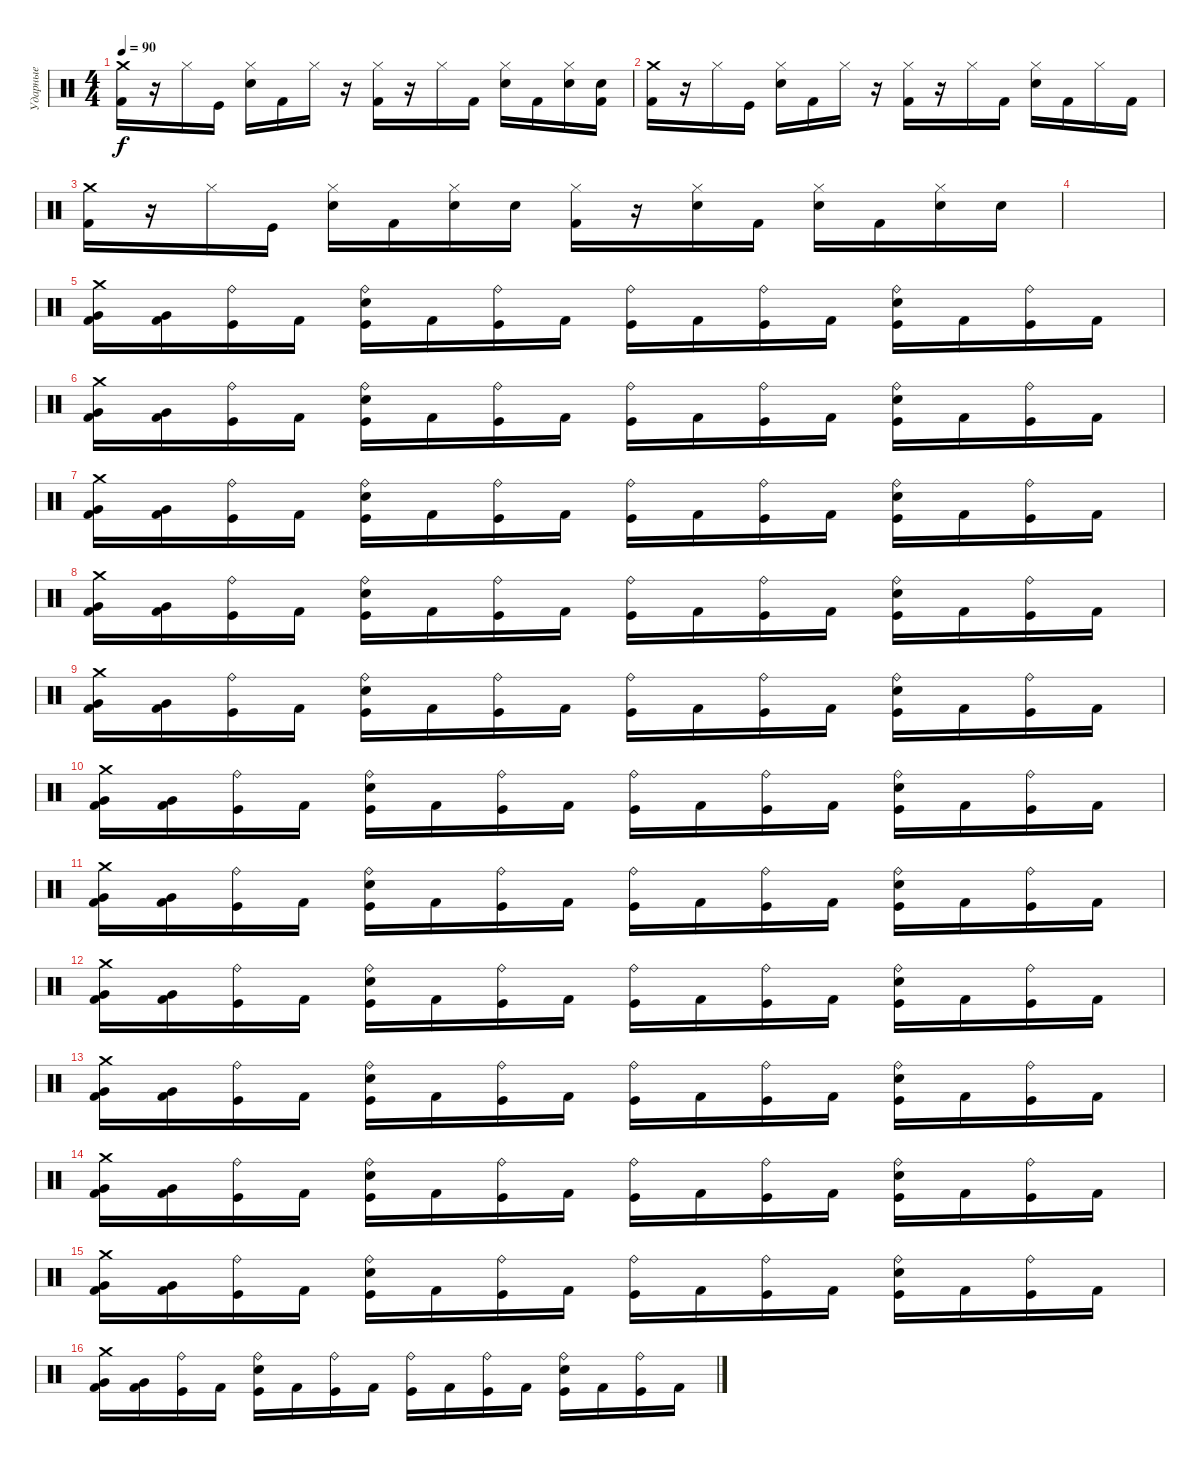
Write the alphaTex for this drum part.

\track ("Ударные" "Ударные") {instrument percussion}
\staff {score}
\articulation defaults
\ts (4 4)
\tempo 90
\clef neutral
\ks c
("Crash medium (hit)" "Kick (hit) 2").16{dy f} r.16 "Hi-Hat (closed)".16 "Kick (hit)".16 ("Hi-Hat (closed)" "Electric Snare (hit)").16 "Kick (hit) 2".16 "Hi-Hat (closed)".16 r.16 ("Hi-Hat (closed)" "Kick (hit) 2").16 r.16 "Hi-Hat (closed)".16 "Kick (hit) 2".16 ("Hi-Hat (closed)" "Electric Snare (hit)").16 "Kick (hit) 2".16 ("Hi-Hat (closed)" "Electric Snare (hit)").16 ("Kick (hit) 2" "Electric Snare (hit)").16 |
("Crash medium (hit)" "Kick (hit) 2").16 r.16 "Hi-Hat (closed)".16 "Kick (hit)".16 ("Hi-Hat (closed)" "Electric Snare (hit)").16 "Kick (hit) 2".16 "Hi-Hat (closed)".16 r.16 ("Hi-Hat (closed)" "Kick (hit) 2").16 r.16 "Hi-Hat (closed)".16 "Kick (hit) 2".16 ("Hi-Hat (closed)" "Electric Snare (hit)").16 "Kick (hit) 2".16 "Hi-Hat (closed)".16 "Kick (hit) 2".16 |
("Crash medium (hit)" "Kick (hit) 2").16 r.16 "Hi-Hat (closed)".16 "Kick (hit)".16 ("Hi-Hat (closed)" "Electric Snare (hit)").16 "Kick (hit) 2".16 ("Hi-Hat (closed)" "Electric Snare (hit)").16 "Electric Snare (hit)".16 ("Hi-Hat (closed)" "Kick (hit) 2").16 r.16 ("Hi-Hat (closed)" "Electric Snare (hit)").16 "Kick (hit) 2".16 ("Hi-Hat (closed)" "Electric Snare (hit)").16 "Kick (hit) 2".16 ("Hi-Hat (closed)" "Electric Snare (hit)").16 "Electric Snare (hit)".16 |
|
("Very Low Tom (hit)" "Kick (hit) 2" "Crash medium (hit)").16 ("Very Low Tom (hit)" "Kick (hit) 2").16 ("Kick (hit)" "Ride (bell)").16 "Kick (hit) 2".16 ("Kick (hit)" "Electric Snare (hit)" "Ride (bell)").16 "Kick (hit) 2".16 ("Kick (hit)" "Ride (bell)").16 "Kick (hit) 2".16 ("Kick (hit)" "Ride (bell)").16 "Kick (hit) 2".16 ("Kick (hit)" "Ride (bell)").16 "Kick (hit) 2".16 ("Kick (hit)" "Electric Snare (hit)" "Ride (bell)").16 "Kick (hit) 2".16 ("Kick (hit)" "Ride (bell)").16 "Kick (hit) 2".16 |
("Very Low Tom (hit)" "Kick (hit) 2" "Crash medium (hit)").16 ("Very Low Tom (hit)" "Kick (hit) 2").16 ("Kick (hit)" "Ride (bell)").16 "Kick (hit) 2".16 ("Kick (hit)" "Electric Snare (hit)" "Ride (bell)").16 "Kick (hit) 2".16 ("Kick (hit)" "Ride (bell)").16 "Kick (hit) 2".16 ("Kick (hit)" "Ride (bell)").16 "Kick (hit) 2".16 ("Kick (hit)" "Ride (bell)").16 "Kick (hit) 2".16 ("Kick (hit)" "Electric Snare (hit)" "Ride (bell)").16 "Kick (hit) 2".16 ("Kick (hit)" "Ride (bell)").16 "Kick (hit) 2".16 |
("Very Low Tom (hit)" "Kick (hit) 2" "Crash medium (hit)").16 ("Very Low Tom (hit)" "Kick (hit) 2").16 ("Kick (hit)" "Ride (bell)").16 "Kick (hit) 2".16 ("Kick (hit)" "Electric Snare (hit)" "Ride (bell)").16 "Kick (hit) 2".16 ("Kick (hit)" "Ride (bell)").16 "Kick (hit) 2".16 ("Kick (hit)" "Ride (bell)").16 "Kick (hit) 2".16 ("Kick (hit)" "Ride (bell)").16 "Kick (hit) 2".16 ("Kick (hit)" "Electric Snare (hit)" "Ride (bell)").16 "Kick (hit) 2".16 ("Kick (hit)" "Ride (bell)").16 "Kick (hit) 2".16 |
("Very Low Tom (hit)" "Kick (hit) 2" "Crash medium (hit)").16 ("Very Low Tom (hit)" "Kick (hit) 2").16 ("Kick (hit)" "Ride (bell)").16 "Kick (hit) 2".16 ("Kick (hit)" "Electric Snare (hit)" "Ride (bell)").16 "Kick (hit) 2".16 ("Kick (hit)" "Ride (bell)").16 "Kick (hit) 2".16 ("Kick (hit)" "Ride (bell)").16 "Kick (hit) 2".16 ("Kick (hit)" "Ride (bell)").16 "Kick (hit) 2".16 ("Kick (hit)" "Electric Snare (hit)" "Ride (bell)").16 "Kick (hit) 2".16 ("Kick (hit)" "Ride (bell)").16 "Kick (hit) 2".16 |
("Very Low Tom (hit)" "Kick (hit) 2" "Crash medium (hit)").16 ("Very Low Tom (hit)" "Kick (hit) 2").16 ("Kick (hit)" "Ride (bell)").16 "Kick (hit) 2".16 ("Kick (hit)" "Electric Snare (hit)" "Ride (bell)").16 "Kick (hit) 2".16 ("Kick (hit)" "Ride (bell)").16 "Kick (hit) 2".16 ("Kick (hit)" "Ride (bell)").16 "Kick (hit) 2".16 ("Kick (hit)" "Ride (bell)").16 "Kick (hit) 2".16 ("Kick (hit)" "Electric Snare (hit)" "Ride (bell)").16 "Kick (hit) 2".16 ("Kick (hit)" "Ride (bell)").16 "Kick (hit) 2".16 |
("Very Low Tom (hit)" "Kick (hit) 2" "Crash medium (hit)").16 ("Very Low Tom (hit)" "Kick (hit) 2").16 ("Kick (hit)" "Ride (bell)").16 "Kick (hit) 2".16 ("Kick (hit)" "Electric Snare (hit)" "Ride (bell)").16 "Kick (hit) 2".16 ("Kick (hit)" "Ride (bell)").16 "Kick (hit) 2".16 ("Kick (hit)" "Ride (bell)").16 "Kick (hit) 2".16 ("Kick (hit)" "Ride (bell)").16 "Kick (hit) 2".16 ("Kick (hit)" "Electric Snare (hit)" "Ride (bell)").16 "Kick (hit) 2".16 ("Kick (hit)" "Ride (bell)").16 "Kick (hit) 2".16 |
("Very Low Tom (hit)" "Kick (hit) 2" "Crash medium (hit)").16 ("Very Low Tom (hit)" "Kick (hit) 2").16 ("Kick (hit)" "Ride (bell)").16 "Kick (hit) 2".16 ("Kick (hit)" "Electric Snare (hit)" "Ride (bell)").16 "Kick (hit) 2".16 ("Kick (hit)" "Ride (bell)").16 "Kick (hit) 2".16 ("Kick (hit)" "Ride (bell)").16 "Kick (hit) 2".16 ("Kick (hit)" "Ride (bell)").16 "Kick (hit) 2".16 ("Kick (hit)" "Electric Snare (hit)" "Ride (bell)").16 "Kick (hit) 2".16 ("Kick (hit)" "Ride (bell)").16 "Kick (hit) 2".16 |
("Very Low Tom (hit)" "Kick (hit) 2" "Crash medium (hit)").16 ("Very Low Tom (hit)" "Kick (hit) 2").16 ("Kick (hit)" "Ride (bell)").16 "Kick (hit) 2".16 ("Kick (hit)" "Electric Snare (hit)" "Ride (bell)").16 "Kick (hit) 2".16 ("Kick (hit)" "Ride (bell)").16 "Kick (hit) 2".16 ("Kick (hit)" "Ride (bell)").16 "Kick (hit) 2".16 ("Kick (hit)" "Ride (bell)").16 "Kick (hit) 2".16 ("Kick (hit)" "Electric Snare (hit)" "Ride (bell)").16 "Kick (hit) 2".16 ("Kick (hit)" "Ride (bell)").16 "Kick (hit) 2".16 |
("Very Low Tom (hit)" "Kick (hit) 2" "Crash medium (hit)").16 ("Very Low Tom (hit)" "Kick (hit) 2").16 ("Kick (hit)" "Ride (bell)").16 "Kick (hit) 2".16 ("Kick (hit)" "Electric Snare (hit)" "Ride (bell)").16 "Kick (hit) 2".16 ("Kick (hit)" "Ride (bell)").16 "Kick (hit) 2".16 ("Kick (hit)" "Ride (bell)").16 "Kick (hit) 2".16 ("Kick (hit)" "Ride (bell)").16 "Kick (hit) 2".16 ("Kick (hit)" "Electric Snare (hit)" "Ride (bell)").16 "Kick (hit) 2".16 ("Kick (hit)" "Ride (bell)").16 "Kick (hit) 2".16 |
("Very Low Tom (hit)" "Kick (hit) 2" "Crash medium (hit)").16 ("Very Low Tom (hit)" "Kick (hit) 2").16 ("Kick (hit)" "Ride (bell)").16 "Kick (hit) 2".16 ("Kick (hit)" "Electric Snare (hit)" "Ride (bell)").16 "Kick (hit) 2".16 ("Kick (hit)" "Ride (bell)").16 "Kick (hit) 2".16 ("Kick (hit)" "Ride (bell)").16 "Kick (hit) 2".16 ("Kick (hit)" "Ride (bell)").16 "Kick (hit) 2".16 ("Kick (hit)" "Electric Snare (hit)" "Ride (bell)").16 "Kick (hit) 2".16 ("Kick (hit)" "Ride (bell)").16 "Kick (hit) 2".16 |
("Very Low Tom (hit)" "Kick (hit) 2" "Crash medium (hit)").16 ("Very Low Tom (hit)" "Kick (hit) 2").16 ("Kick (hit)" "Ride (bell)").16 "Kick (hit) 2".16 ("Kick (hit)" "Electric Snare (hit)" "Ride (bell)").16 "Kick (hit) 2".16 ("Kick (hit)" "Ride (bell)").16 "Kick (hit) 2".16 ("Kick (hit)" "Ride (bell)").16 "Kick (hit) 2".16 ("Kick (hit)" "Ride (bell)").16 "Kick (hit) 2".16 ("Kick (hit)" "Electric Snare (hit)" "Ride (bell)").16 "Kick (hit) 2".16 ("Kick (hit)" "Ride (bell)").16 "Kick (hit) 2".16 |
("Very Low Tom (hit)" "Kick (hit) 2" "Crash medium (hit)").16 ("Very Low Tom (hit)" "Kick (hit) 2").16 ("Kick (hit)" "Ride (bell)").16 "Kick (hit) 2".16 ("Kick (hit)" "Electric Snare (hit)" "Ride (bell)").16 "Kick (hit) 2".16 ("Kick (hit)" "Ride (bell)").16 "Kick (hit) 2".16 ("Kick (hit)" "Ride (bell)").16 "Kick (hit) 2".16 ("Kick (hit)" "Ride (bell)").16 "Kick (hit) 2".16 ("Kick (hit)" "Electric Snare (hit)" "Ride (bell)").16 "Kick (hit) 2".16 ("Kick (hit)" "Ride (bell)").16 "Kick (hit) 2".16
